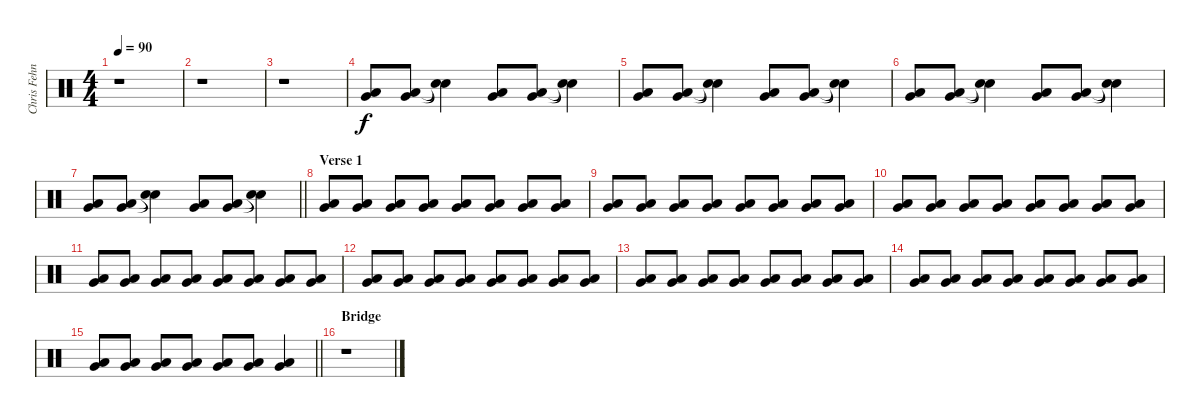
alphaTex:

\track ("Chris Fehn" "Chris Fehn") {instrument percussion}
\staff {score}
\articulation defaults
\ts (4 4)
\tempo 90
\clef neutral
\ks c
r.1{dy f} |
r.1 |
r.1 |
("Very Low Tom (hit)" "Low Floor Tom (hit)").8 ("Very Low Tom (hit)" "Low Floor Tom (hit)").8 ("Snare (hit)"{t} "Snare (hit)"{t}).4 ("Very Low Tom (hit)" "Low Floor Tom (hit)").8 ("Very Low Tom (hit)" "Low Floor Tom (hit)").8 ("Snare (hit)"{t} "Snare (hit)"{t}).4 |
("Very Low Tom (hit)" "Low Floor Tom (hit)").8 ("Very Low Tom (hit)" "Low Floor Tom (hit)").8 ("Snare (hit)"{t} "Snare (hit)"{t}).4 ("Very Low Tom (hit)" "Low Floor Tom (hit)").8 ("Very Low Tom (hit)" "Low Floor Tom (hit)").8 ("Snare (hit)"{t} "Snare (hit)"{t}).4 |
("Very Low Tom (hit)" "Low Floor Tom (hit)").8 ("Very Low Tom (hit)" "Low Floor Tom (hit)").8 ("Snare (hit)"{t} "Snare (hit)"{t}).4 ("Very Low Tom (hit)" "Low Floor Tom (hit)").8 ("Very Low Tom (hit)" "Low Floor Tom (hit)").8 ("Snare (hit)"{t} "Snare (hit)"{t}).4 |
\barLineRight lightlight
("Very Low Tom (hit)" "Low Floor Tom (hit)").8 ("Very Low Tom (hit)" "Low Floor Tom (hit)").8 ("Snare (hit)"{t} "Snare (hit)"{t}).4 ("Very Low Tom (hit)" "Low Floor Tom (hit)").8 ("Very Low Tom (hit)" "Low Floor Tom (hit)").8 ("Snare (hit)"{t} "Snare (hit)"{t}).4 |
\section ("" "Verse 1")
("Very Low Tom (hit)" "Low Floor Tom (hit)").8 ("Very Low Tom (hit)" "Low Floor Tom (hit)").8 ("Very Low Tom (hit)" "Low Floor Tom (hit)").8 ("Very Low Tom (hit)" "Low Floor Tom (hit)").8 ("Very Low Tom (hit)" "Low Floor Tom (hit)").8 ("Very Low Tom (hit)" "Low Floor Tom (hit)").8 ("Very Low Tom (hit)" "Low Floor Tom (hit)").8 ("Very Low Tom (hit)" "Low Floor Tom (hit)").8 |
("Very Low Tom (hit)" "Low Floor Tom (hit)").8 ("Very Low Tom (hit)" "Low Floor Tom (hit)").8 ("Very Low Tom (hit)" "Low Floor Tom (hit)").8 ("Very Low Tom (hit)" "Low Floor Tom (hit)").8 ("Very Low Tom (hit)" "Low Floor Tom (hit)").8 ("Very Low Tom (hit)" "Low Floor Tom (hit)").8 ("Very Low Tom (hit)" "Low Floor Tom (hit)").8 ("Very Low Tom (hit)" "Low Floor Tom (hit)").8 |
("Very Low Tom (hit)" "Low Floor Tom (hit)").8 ("Very Low Tom (hit)" "Low Floor Tom (hit)").8 ("Very Low Tom (hit)" "Low Floor Tom (hit)").8 ("Very Low Tom (hit)" "Low Floor Tom (hit)").8 ("Very Low Tom (hit)" "Low Floor Tom (hit)").8 ("Very Low Tom (hit)" "Low Floor Tom (hit)").8 ("Very Low Tom (hit)" "Low Floor Tom (hit)").8 ("Very Low Tom (hit)" "Low Floor Tom (hit)").8 |
("Very Low Tom (hit)" "Low Floor Tom (hit)").8 ("Very Low Tom (hit)" "Low Floor Tom (hit)").8 ("Very Low Tom (hit)" "Low Floor Tom (hit)").8 ("Very Low Tom (hit)" "Low Floor Tom (hit)").8 ("Very Low Tom (hit)" "Low Floor Tom (hit)").8 ("Very Low Tom (hit)" "Low Floor Tom (hit)").8 ("Very Low Tom (hit)" "Low Floor Tom (hit)").8 ("Very Low Tom (hit)" "Low Floor Tom (hit)").8 |
("Very Low Tom (hit)" "Low Floor Tom (hit)").8 ("Very Low Tom (hit)" "Low Floor Tom (hit)").8 ("Very Low Tom (hit)" "Low Floor Tom (hit)").8 ("Very Low Tom (hit)" "Low Floor Tom (hit)").8 ("Very Low Tom (hit)" "Low Floor Tom (hit)").8 ("Very Low Tom (hit)" "Low Floor Tom (hit)").8 ("Very Low Tom (hit)" "Low Floor Tom (hit)").8 ("Very Low Tom (hit)" "Low Floor Tom (hit)").8 |
("Very Low Tom (hit)" "Low Floor Tom (hit)").8 ("Very Low Tom (hit)" "Low Floor Tom (hit)").8 ("Very Low Tom (hit)" "Low Floor Tom (hit)").8 ("Very Low Tom (hit)" "Low Floor Tom (hit)").8 ("Very Low Tom (hit)" "Low Floor Tom (hit)").8 ("Very Low Tom (hit)" "Low Floor Tom (hit)").8 ("Very Low Tom (hit)" "Low Floor Tom (hit)").8 ("Very Low Tom (hit)" "Low Floor Tom (hit)").8 |
("Very Low Tom (hit)" "Low Floor Tom (hit)").8 ("Very Low Tom (hit)" "Low Floor Tom (hit)").8 ("Very Low Tom (hit)" "Low Floor Tom (hit)").8 ("Very Low Tom (hit)" "Low Floor Tom (hit)").8 ("Very Low Tom (hit)" "Low Floor Tom (hit)").8 ("Very Low Tom (hit)" "Low Floor Tom (hit)").8 ("Very Low Tom (hit)" "Low Floor Tom (hit)").8 ("Very Low Tom (hit)" "Low Floor Tom (hit)").8 |
\barLineRight lightlight
("Very Low Tom (hit)" "Low Floor Tom (hit)").8 ("Very Low Tom (hit)" "Low Floor Tom (hit)").8 ("Very Low Tom (hit)" "Low Floor Tom (hit)").8 ("Very Low Tom (hit)" "Low Floor Tom (hit)").8 ("Very Low Tom (hit)" "Low Floor Tom (hit)").8 ("Very Low Tom (hit)" "Low Floor Tom (hit)").8 ("Very Low Tom (hit)" "Low Floor Tom (hit)").4 |
\section ("" "Bridge")
r.1
